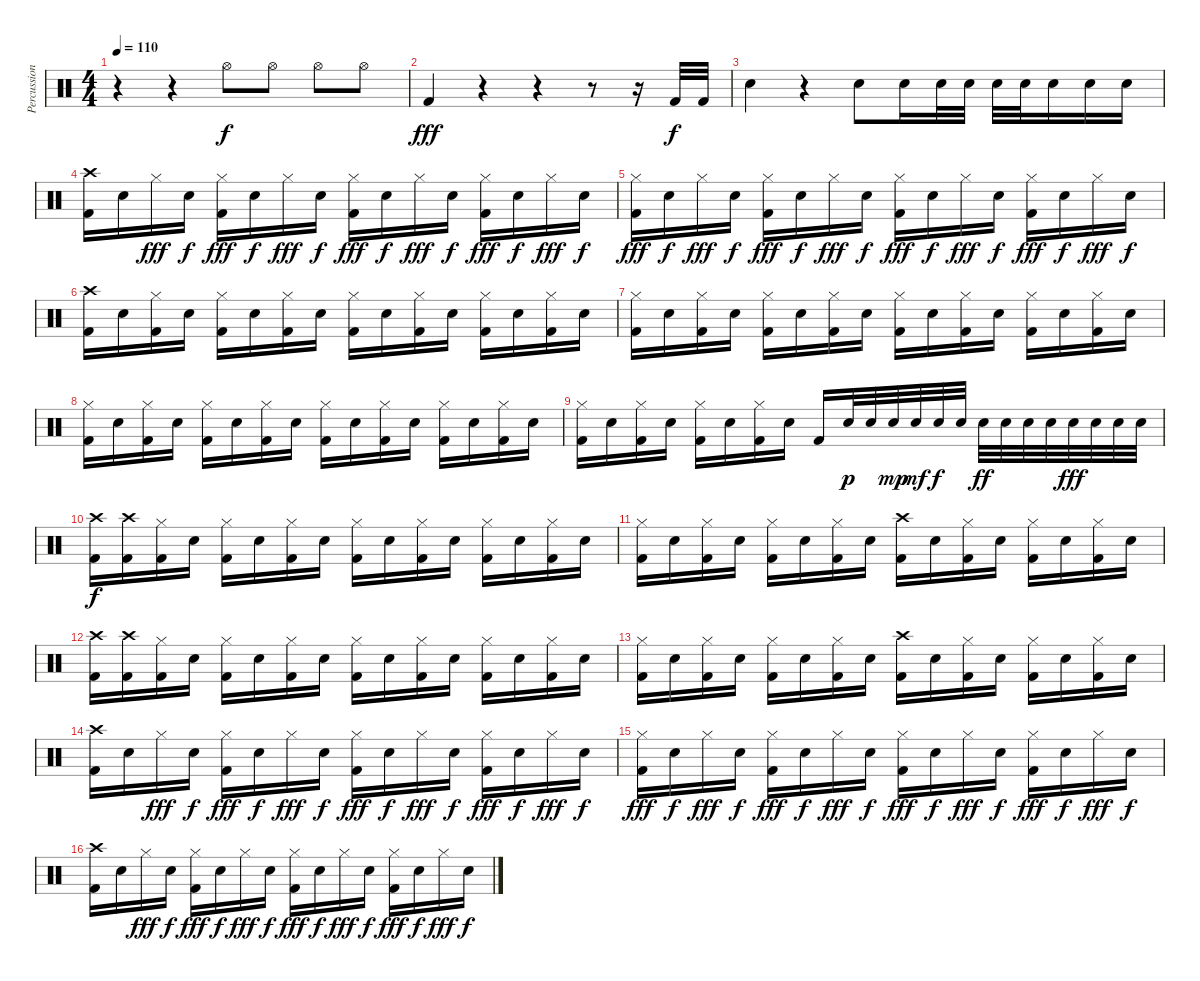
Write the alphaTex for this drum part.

\track ("Percussions" "Percussion") {instrument percussion}
\staff {score}
\articulation defaults
\ts (4 4)
\tempo 110
\clef neutral
\ks c
r.4{dy f} r.4 "Hi-Hat (open)".8 "Hi-Hat (open)".8 "Hi-Hat (open)".8 "Hi-Hat (open)".8 |
"Kick (hit) 2".4{dy fff} r.4 r.4 r.8 r.16 "Kick (hit) 2".32{dy f} "Kick (hit) 2".32 |
"Snare (hit) 2".4 r.4 "Snare (hit) 2".8 "Snare (hit) 2".16 "Snare (hit) 2".32 "Snare (hit) 2".32 "Snare (hit) 2".32 "Snare (hit) 2".32 "Snare (hit) 2".16 "Snare (hit) 2".16 "Snare (hit) 2".16 |
("Crash high (hit)" "Kick (hit) 2").16 "Snare (hit) 2".16 "Hi-Hat (closed)".16{dy fff} "Snare (hit) 2".16{dy f} ("Hi-Hat (closed)" "Kick (hit) 2").16{dy fff} "Snare (hit) 2".16{dy f} "Hi-Hat (closed)".16{dy fff} "Snare (hit) 2".16{dy f} ("Hi-Hat (closed)" "Kick (hit) 2").16{dy fff} "Snare (hit) 2".16{dy f} "Hi-Hat (closed)".16{dy fff} "Snare (hit) 2".16{dy f} ("Hi-Hat (closed)" "Kick (hit) 2").16{dy fff} "Snare (hit) 2".16{dy f} "Hi-Hat (closed)".16{dy fff} "Snare (hit) 2".16{dy f} |
("Hi-Hat (closed)" "Kick (hit) 2").16{dy fff} "Snare (hit) 2".16{dy f} "Hi-Hat (closed)".16{dy fff} "Snare (hit) 2".16{dy f} ("Hi-Hat (closed)" "Kick (hit) 2").16{dy fff} "Snare (hit) 2".16{dy f} "Hi-Hat (closed)".16{dy fff} "Snare (hit) 2".16{dy f} ("Hi-Hat (closed)" "Kick (hit) 2").16{dy fff} "Snare (hit) 2".16{dy f} "Hi-Hat (closed)".16{dy fff} "Snare (hit) 2".16{dy f} ("Hi-Hat (closed)" "Kick (hit) 2").16{dy fff} "Snare (hit) 2".16{dy f} "Hi-Hat (closed)".16{dy fff} "Snare (hit) 2".16{dy f} |
("Crash high (hit)" "Kick (hit) 2").16 "Snare (hit) 2".16 ("Hi-Hat (closed)" "Kick (hit) 2").16 "Snare (hit) 2".16 ("Hi-Hat (closed)" "Kick (hit) 2").16 "Snare (hit) 2".16 ("Hi-Hat (closed)" "Kick (hit) 2").16 "Snare (hit) 2".16 ("Hi-Hat (closed)" "Kick (hit) 2").16 "Snare (hit) 2".16 ("Hi-Hat (closed)" "Kick (hit) 2").16 "Snare (hit) 2".16 ("Hi-Hat (closed)" "Kick (hit) 2").16 "Snare (hit) 2".16 ("Hi-Hat (closed)" "Kick (hit) 2").16 "Snare (hit) 2".16 |
("Hi-Hat (closed)" "Kick (hit) 2").16 "Snare (hit) 2".16 ("Hi-Hat (closed)" "Kick (hit) 2").16 "Snare (hit) 2".16 ("Hi-Hat (closed)" "Kick (hit) 2").16 "Snare (hit) 2".16 ("Hi-Hat (closed)" "Kick (hit) 2").16 "Snare (hit) 2".16 ("Hi-Hat (closed)" "Kick (hit) 2").16 "Snare (hit) 2".16 ("Hi-Hat (closed)" "Kick (hit) 2").16 "Snare (hit) 2".16 ("Hi-Hat (closed)" "Kick (hit) 2").16 "Snare (hit) 2".16 ("Hi-Hat (closed)" "Kick (hit) 2").16 "Snare (hit) 2".16 |
("Hi-Hat (closed)" "Kick (hit) 2").16 "Snare (hit) 2".16 ("Hi-Hat (closed)" "Kick (hit) 2").16 "Snare (hit) 2".16 ("Hi-Hat (closed)" "Kick (hit) 2").16 "Snare (hit) 2".16 ("Hi-Hat (closed)" "Kick (hit) 2").16 "Snare (hit) 2".16 ("Hi-Hat (closed)" "Kick (hit) 2").16 "Snare (hit) 2".16 ("Hi-Hat (closed)" "Kick (hit) 2").16 "Snare (hit) 2".16 ("Hi-Hat (closed)" "Kick (hit) 2").16 "Snare (hit) 2".16 ("Hi-Hat (closed)" "Kick (hit) 2").16 "Snare (hit) 2".16 |
("Hi-Hat (closed)" "Kick (hit) 2").16 "Snare (hit) 2".16 ("Hi-Hat (closed)" "Kick (hit) 2").16 "Snare (hit) 2".16 ("Hi-Hat (closed)" "Kick (hit) 2").16 "Snare (hit) 2".16 ("Hi-Hat (closed)" "Kick (hit) 2").16 "Snare (hit) 2".16 "Kick (hit) 2".16 "Snare (hit) 2".32{dy p} "Snare (hit) 2".32 "Snare (hit) 2".32{dy mp} "Snare (hit) 2".32{dy mf} "Snare (hit) 2".32{dy f} "Snare (hit) 2".32 "Snare (hit) 2".32{dy ff} "Snare (hit) 2".32 "Snare (hit) 2".32 "Snare (hit) 2".32 "Snare (hit) 2".32{dy fff} "Snare (hit) 2".32 "Snare (hit) 2".32 "Snare (hit) 2".32 |
("Crash high (hit)" "Kick (hit) 2").16{dy f} ("Crash high (hit)" "Kick (hit) 2").16 ("Hi-Hat (closed)" "Kick (hit) 2").16 "Snare (hit) 2".16 ("Hi-Hat (closed)" "Kick (hit) 2").16 "Snare (hit) 2".16 ("Hi-Hat (closed)" "Kick (hit) 2").16 "Snare (hit) 2".16 ("Hi-Hat (closed)" "Kick (hit) 2").16 "Snare (hit) 2".16 ("Hi-Hat (closed)" "Kick (hit) 2").16 "Snare (hit) 2".16 ("Hi-Hat (closed)" "Kick (hit) 2").16 "Snare (hit) 2".16 ("Hi-Hat (closed)" "Kick (hit) 2").16 "Snare (hit) 2".16 |
("Hi-Hat (closed)" "Kick (hit) 2").16 "Snare (hit) 2".16 ("Hi-Hat (closed)" "Kick (hit) 2").16 "Snare (hit) 2".16 ("Hi-Hat (closed)" "Kick (hit) 2").16 "Snare (hit) 2".16 ("Hi-Hat (closed)" "Kick (hit) 2").16 "Snare (hit) 2".16 ("Crash high (hit)" "Kick (hit) 2").16 "Snare (hit) 2".16 ("Hi-Hat (closed)" "Kick (hit) 2").16 "Snare (hit) 2".16 ("Hi-Hat (closed)" "Kick (hit) 2").16 "Snare (hit) 2".16 ("Hi-Hat (closed)" "Kick (hit) 2").16 "Snare (hit) 2".16 |
("Crash high (hit)" "Kick (hit) 2").16 ("Crash high (hit)" "Kick (hit) 2").16 ("Hi-Hat (closed)" "Kick (hit) 2").16 "Snare (hit) 2".16 ("Hi-Hat (closed)" "Kick (hit) 2").16 "Snare (hit) 2".16 ("Hi-Hat (closed)" "Kick (hit) 2").16 "Snare (hit) 2".16 ("Hi-Hat (closed)" "Kick (hit) 2").16 "Snare (hit) 2".16 ("Hi-Hat (closed)" "Kick (hit) 2").16 "Snare (hit) 2".16 ("Hi-Hat (closed)" "Kick (hit) 2").16 "Snare (hit) 2".16 ("Hi-Hat (closed)" "Kick (hit) 2").16 "Snare (hit) 2".16 |
("Hi-Hat (closed)" "Kick (hit) 2").16 "Snare (hit) 2".16 ("Hi-Hat (closed)" "Kick (hit) 2").16 "Snare (hit) 2".16 ("Hi-Hat (closed)" "Kick (hit) 2").16 "Snare (hit) 2".16 ("Hi-Hat (closed)" "Kick (hit) 2").16 "Snare (hit) 2".16 ("Crash high (hit)" "Kick (hit) 2").16 "Snare (hit) 2".16 ("Hi-Hat (closed)" "Kick (hit) 2").16 "Snare (hit) 2".16 ("Hi-Hat (closed)" "Kick (hit) 2").16 "Snare (hit) 2".16 ("Hi-Hat (closed)" "Kick (hit) 2").16 "Snare (hit) 2".16 |
("Crash high (hit)" "Kick (hit) 2").16 "Snare (hit) 2".16 "Hi-Hat (closed)".16{dy fff} "Snare (hit) 2".16{dy f} ("Hi-Hat (closed)" "Kick (hit) 2").16{dy fff} "Snare (hit) 2".16{dy f} "Hi-Hat (closed)".16{dy fff} "Snare (hit) 2".16{dy f} ("Hi-Hat (closed)" "Kick (hit) 2").16{dy fff} "Snare (hit) 2".16{dy f} "Hi-Hat (closed)".16{dy fff} "Snare (hit) 2".16{dy f} ("Hi-Hat (closed)" "Kick (hit) 2").16{dy fff} "Snare (hit) 2".16{dy f} "Hi-Hat (closed)".16{dy fff} "Snare (hit) 2".16{dy f} |
("Hi-Hat (closed)" "Kick (hit) 2").16{dy fff} "Snare (hit) 2".16{dy f} "Hi-Hat (closed)".16{dy fff} "Snare (hit) 2".16{dy f} ("Hi-Hat (closed)" "Kick (hit) 2").16{dy fff} "Snare (hit) 2".16{dy f} "Hi-Hat (closed)".16{dy fff} "Snare (hit) 2".16{dy f} ("Hi-Hat (closed)" "Kick (hit) 2").16{dy fff} "Snare (hit) 2".16{dy f} "Hi-Hat (closed)".16{dy fff} "Snare (hit) 2".16{dy f} ("Hi-Hat (closed)" "Kick (hit) 2").16{dy fff} "Snare (hit) 2".16{dy f} "Hi-Hat (closed)".16{dy fff} "Snare (hit) 2".16{dy f} |
("Crash high (hit)" "Kick (hit) 2").16 "Snare (hit) 2".16 "Hi-Hat (closed)".16{dy fff} "Snare (hit) 2".16{dy f} ("Hi-Hat (closed)" "Kick (hit) 2").16{dy fff} "Snare (hit) 2".16{dy f} "Hi-Hat (closed)".16{dy fff} "Snare (hit) 2".16{dy f} ("Hi-Hat (closed)" "Kick (hit) 2").16{dy fff} "Snare (hit) 2".16{dy f} "Hi-Hat (closed)".16{dy fff} "Snare (hit) 2".16{dy f} ("Hi-Hat (closed)" "Kick (hit) 2").16{dy fff} "Snare (hit) 2".16{dy f} "Hi-Hat (closed)".16{dy fff} "Snare (hit) 2".16{dy f}
